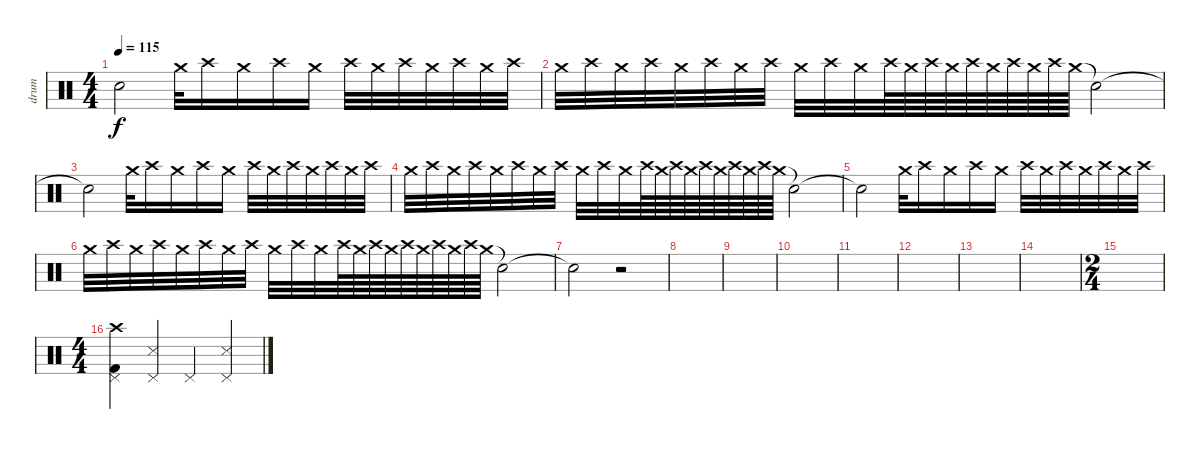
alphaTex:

\track ("drum" "drum") {instrument percussion}
\staff {score}
\articulation defaults
\ts (4 4)
\tempo 115
\clef neutral
\ks c "Snare (hit)"{t}.2{dy f} "Crash medium (hit)".32{volume 2} "Crash high (hit)".16{volume 15} "Crash medium (hit)".16 "Crash high (hit)".16 "Crash medium (hit)".16 "Crash high (hit)".32 "Crash medium (hit)".32 "Crash high (hit)".32 "Crash medium (hit)".32 "Crash high (hit)".32 "Crash medium (hit)".32 "Crash high (hit)".32
|
"Crash medium (hit)".32 "Crash high (hit)".32 "Crash medium (hit)".32 "Crash high (hit)".32 "Crash medium (hit)".32 "Crash high (hit)".32 "Crash medium (hit)".32 "Crash high (hit)".32 "Crash medium (hit)".32 "Crash high (hit)".32 "Crash medium (hit)".32 "Crash high (hit)".64 "Crash medium (hit)".64 "Crash high (hit)".64 "Crash medium (hit)".64 "Crash high (hit)".64 "Crash medium (hit)".64 "Crash high (hit)".64 "Crash medium (hit)".64 "Crash high (hit)".64 "Crash medium (hit)".64 "Snare (hit)"{t}.2 |
"Snare (hit)"{t}.2 "Crash medium (hit)".32{volume 2} "Crash high (hit)".16{volume 15} "Crash medium (hit)".16 "Crash high (hit)".16 "Crash medium (hit)".16 "Crash high (hit)".32 "Crash medium (hit)".32 "Crash high (hit)".32 "Crash medium (hit)".32 "Crash high (hit)".32 "Crash medium (hit)".32 "Crash high (hit)".32 |
"Crash medium (hit)".32 "Crash high (hit)".32 "Crash medium (hit)".32 "Crash high (hit)".32 "Crash medium (hit)".32 "Crash high (hit)".32 "Crash medium (hit)".32 "Crash high (hit)".32 "Crash medium (hit)".32 "Crash high (hit)".32 "Crash medium (hit)".32 "Crash high (hit)".64 "Crash medium (hit)".64 "Crash high (hit)".64 "Crash medium (hit)".64 "Crash high (hit)".64 "Crash medium (hit)".64 "Crash high (hit)".64 "Crash medium (hit)".64 "Crash high (hit)".64 "Crash medium (hit)".64 "Snare (hit)"{t}.2 |
"Snare (hit)"{t}.2 "Crash medium (hit)".32{volume 2} "Crash high (hit)".16{volume 15} "Crash medium (hit)".16 "Crash high (hit)".16 "Crash medium (hit)".16 "Crash high (hit)".32 "Crash medium (hit)".32 "Crash high (hit)".32 "Crash medium (hit)".32 "Crash high (hit)".32 "Crash medium (hit)".32 "Crash high (hit)".32 |
"Crash medium (hit)".32 "Crash high (hit)".32 "Crash medium (hit)".32 "Crash high (hit)".32 "Crash medium (hit)".32 "Crash high (hit)".32 "Crash medium (hit)".32 "Crash high (hit)".32 "Crash medium (hit)".32 "Crash high (hit)".32 "Crash medium (hit)".32 "Crash high (hit)".64 "Crash medium (hit)".64 "Crash high (hit)".64 "Crash medium (hit)".64 "Crash high (hit)".64 "Crash medium (hit)".64 "Crash high (hit)".64 "Crash medium (hit)".64 "Crash high (hit)".64 "Crash medium (hit)".64 "Snare (hit)"{t}.2 |
"Snare (hit)"{t}.2 r.2 |
|
|
|
|
|
|
|
\ts (2 4)
|
\ts (4 4)
("Crash high (hit)" "Pedal Hi-Hat (hit)" "Kick (hit) 2").4 ("Pedal Hi-Hat (hit)" "Snare (side stick) 3").4 "Pedal Hi-Hat (hit)".4 ("Pedal Hi-Hat (hit)" "Snare (side stick) 3").4
